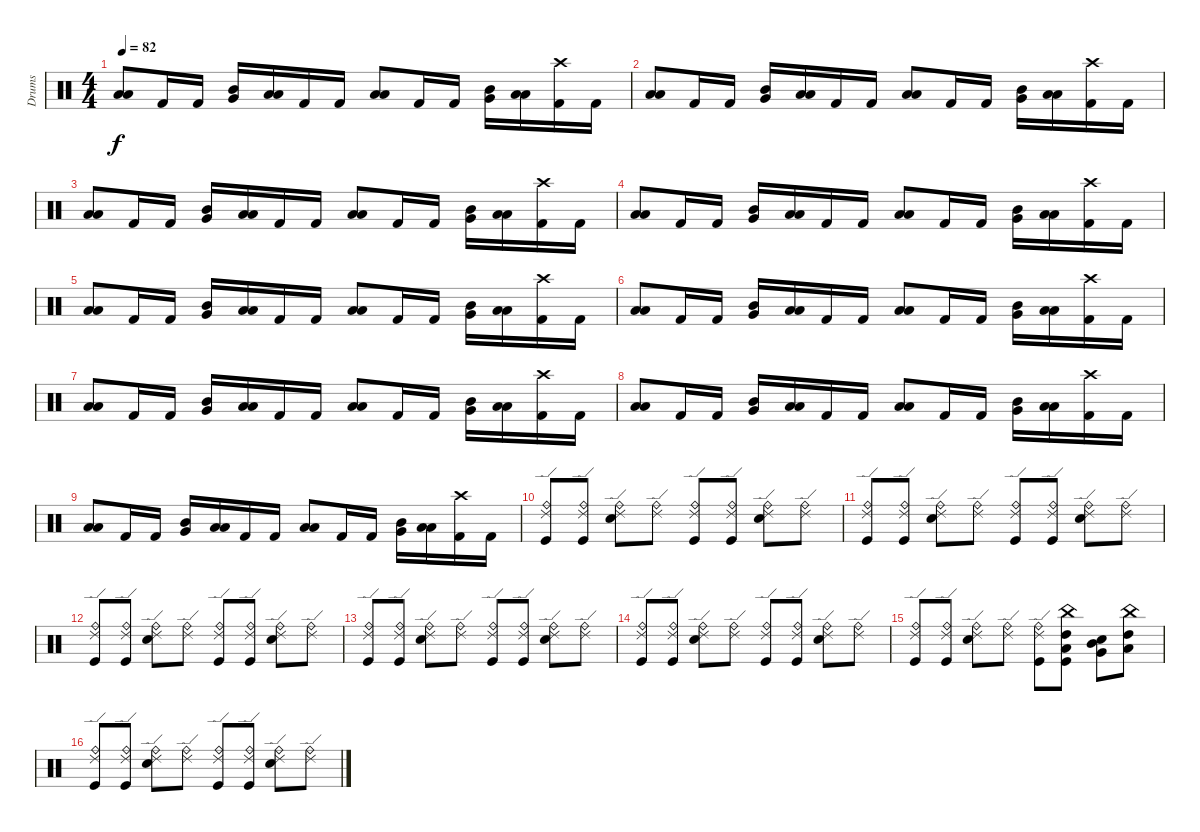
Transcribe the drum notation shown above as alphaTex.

\track ("Drums" "Drums") {instrument percussion}
\staff {score}
\articulation defaults
\ts (4 4)
\tempo 82
\clef neutral
\ks c
("Low Floor Tom (hit)" "Low Tom (hit)").8{dy f} "Kick (hit) 2".16 "Kick (hit) 2".16 ("Mid Tom (hit)" "Very Low Tom (hit)").16 ("Low Floor Tom (hit)" "Low Tom (hit)").16 "Kick (hit) 2".16 "Kick (hit) 2".16 ("Low Tom (hit)" "Low Floor Tom (hit)").8 "Kick (hit) 2".16 "Kick (hit) 2".16 ("Mid Tom (hit)" "Very Low Tom (hit)").16 ("Low Floor Tom (hit)" "Low Tom (hit)").16 ("Kick (hit) 2" "Crash high (hit)").16 "Kick (hit) 2".16 |
("Low Floor Tom (hit)" "Low Tom (hit)").8 "Kick (hit) 2".16 "Kick (hit) 2".16 ("Mid Tom (hit)" "Very Low Tom (hit)").16 ("Low Floor Tom (hit)" "Low Tom (hit)").16 "Kick (hit) 2".16 "Kick (hit) 2".16 ("Low Tom (hit)" "Low Floor Tom (hit)").8 "Kick (hit) 2".16 "Kick (hit) 2".16 ("Mid Tom (hit)" "Very Low Tom (hit)").16 ("Low Floor Tom (hit)" "Low Tom (hit)").16 ("Kick (hit) 2" "Crash high (hit)").16 "Kick (hit) 2".16 |
("Low Floor Tom (hit)" "Low Tom (hit)").8 "Kick (hit) 2".16 "Kick (hit) 2".16 ("Mid Tom (hit)" "Very Low Tom (hit)").16 ("Low Floor Tom (hit)" "Low Tom (hit)").16 "Kick (hit) 2".16 "Kick (hit) 2".16 ("Low Tom (hit)" "Low Floor Tom (hit)").8 "Kick (hit) 2".16 "Kick (hit) 2".16 ("Mid Tom (hit)" "Very Low Tom (hit)").16 ("Low Floor Tom (hit)" "Low Tom (hit)").16 ("Kick (hit) 2" "Crash high (hit)").16 "Kick (hit) 2".16 |
("Low Floor Tom (hit)" "Low Tom (hit)").8 "Kick (hit) 2".16 "Kick (hit) 2".16 ("Mid Tom (hit)" "Very Low Tom (hit)").16 ("Low Floor Tom (hit)" "Low Tom (hit)").16 "Kick (hit) 2".16 "Kick (hit) 2".16 ("Low Tom (hit)" "Low Floor Tom (hit)").8 "Kick (hit) 2".16 "Kick (hit) 2".16 ("Mid Tom (hit)" "Very Low Tom (hit)").16 ("Low Floor Tom (hit)" "Low Tom (hit)").16 ("Kick (hit) 2" "Crash high (hit)").16 "Kick (hit) 2".16 |
("Low Floor Tom (hit)" "Low Tom (hit)").8 "Kick (hit) 2".16 "Kick (hit) 2".16 ("Mid Tom (hit)" "Very Low Tom (hit)").16 ("Low Floor Tom (hit)" "Low Tom (hit)").16 "Kick (hit) 2".16 "Kick (hit) 2".16 ("Low Tom (hit)" "Low Floor Tom (hit)").8 "Kick (hit) 2".16 "Kick (hit) 2".16 ("Mid Tom (hit)" "Very Low Tom (hit)").16 ("Low Floor Tom (hit)" "Low Tom (hit)").16 ("Kick (hit) 2" "Crash high (hit)").16 "Kick (hit) 2".16 |
("Low Floor Tom (hit)" "Low Tom (hit)").8 "Kick (hit) 2".16 "Kick (hit) 2".16 ("Mid Tom (hit)" "Very Low Tom (hit)").16 ("Low Floor Tom (hit)" "Low Tom (hit)").16 "Kick (hit) 2".16 "Kick (hit) 2".16 ("Low Tom (hit)" "Low Floor Tom (hit)").8 "Kick (hit) 2".16 "Kick (hit) 2".16 ("Mid Tom (hit)" "Very Low Tom (hit)").16 ("Low Floor Tom (hit)" "Low Tom (hit)").16 ("Kick (hit) 2" "Crash high (hit)").16 "Kick (hit) 2".16 |
("Low Floor Tom (hit)" "Low Tom (hit)").8 "Kick (hit) 2".16 "Kick (hit) 2".16 ("Mid Tom (hit)" "Very Low Tom (hit)").16 ("Low Floor Tom (hit)" "Low Tom (hit)").16 "Kick (hit) 2".16 "Kick (hit) 2".16 ("Low Tom (hit)" "Low Floor Tom (hit)").8 "Kick (hit) 2".16 "Kick (hit) 2".16 ("Mid Tom (hit)" "Very Low Tom (hit)").16 ("Low Floor Tom (hit)" "Low Tom (hit)").16 ("Kick (hit) 2" "Crash high (hit)").16 "Kick (hit) 2".16 |
("Low Floor Tom (hit)" "Low Tom (hit)").8 "Kick (hit) 2".16 "Kick (hit) 2".16 ("Mid Tom (hit)" "Very Low Tom (hit)").16 ("Low Floor Tom (hit)" "Low Tom (hit)").16 "Kick (hit) 2".16 "Kick (hit) 2".16 ("Low Tom (hit)" "Low Floor Tom (hit)").8 "Kick (hit) 2".16 "Kick (hit) 2".16 ("Mid Tom (hit)" "Very Low Tom (hit)").16 ("Low Floor Tom (hit)" "Low Tom (hit)").16 ("Kick (hit) 2" "Crash high (hit)").16 "Kick (hit) 2".16 |
("Low Floor Tom (hit)" "Low Tom (hit)").8 "Kick (hit) 2".16 "Kick (hit) 2".16 ("Mid Tom (hit)" "Very Low Tom (hit)").16 ("Low Floor Tom (hit)" "Low Tom (hit)").16 "Kick (hit) 2".16 "Kick (hit) 2".16 ("Low Tom (hit)" "Low Floor Tom (hit)").8 "Kick (hit) 2".16 "Kick (hit) 2".16 ("Mid Tom (hit)" "Very Low Tom (hit)").16 ("Low Floor Tom (hit)" "Low Tom (hit)").16 ("Kick (hit) 2" "Crash high (hit)").16 "Kick (hit) 2".16 |
("Ride (edge) 2" "Ride (bell)" "Kick (hit)").8 ("Kick (hit)" "Ride (bell)" "Ride (edge) 2").8 ("Snare (hit) 2" "Ride (bell)" "Ride (edge) 2").8 ("Ride (bell)" "Ride (edge) 2").8 ("Kick (hit)" "Ride (bell)" "Ride (edge) 2").8 ("Kick (hit)" "Ride (bell)" "Ride (edge) 2").8 ("Snare (hit) 2" "Ride (bell)" "Ride (edge) 2").8 ("Ride (bell)" "Ride (edge) 2").8 |
("Ride (edge) 2" "Ride (bell)" "Kick (hit)").8 ("Kick (hit)" "Ride (bell)" "Ride (edge) 2").8 ("Snare (hit) 2" "Ride (bell)" "Ride (edge) 2").8 ("Ride (bell)" "Ride (edge) 2").8 ("Kick (hit)" "Ride (bell)" "Ride (edge) 2").8 ("Kick (hit)" "Ride (bell)" "Ride (edge) 2").8 ("Snare (hit) 2" "Ride (bell)" "Ride (edge) 2").8 ("Ride (bell)" "Ride (edge) 2").8 |
("Ride (edge) 2" "Ride (bell)" "Kick (hit)").8 ("Kick (hit)" "Ride (bell)" "Ride (edge) 2").8 ("Snare (hit) 2" "Ride (bell)" "Ride (edge) 2").8 ("Ride (bell)" "Ride (edge) 2").8 ("Kick (hit)" "Ride (bell)" "Ride (edge) 2").8 ("Kick (hit)" "Ride (bell)" "Ride (edge) 2").8 ("Snare (hit) 2" "Ride (bell)" "Ride (edge) 2").8 ("Ride (bell)" "Ride (edge) 2").8 |
("Ride (edge) 2" "Ride (bell)" "Kick (hit)").8 ("Kick (hit)" "Ride (bell)" "Ride (edge) 2").8 ("Snare (hit) 2" "Ride (bell)" "Ride (edge) 2").8 ("Ride (bell)" "Ride (edge) 2").8 ("Kick (hit)" "Ride (bell)" "Ride (edge) 2").8 ("Kick (hit)" "Ride (bell)" "Ride (edge) 2").8 ("Snare (hit) 2" "Ride (bell)" "Ride (edge) 2").8 ("Ride (bell)" "Ride (edge) 2").8 |
("Ride (edge) 2" "Ride (bell)" "Kick (hit)").8 ("Kick (hit)" "Ride (bell)" "Ride (edge) 2").8 ("Snare (hit) 2" "Ride (bell)" "Ride (edge) 2").8 ("Ride (bell)" "Ride (edge) 2").8 ("Kick (hit)" "Ride (bell)" "Ride (edge) 2").8 ("Kick (hit)" "Ride (bell)" "Ride (edge) 2").8 ("Snare (hit) 2" "Ride (bell)" "Ride (edge) 2").8 ("Ride (bell)" "Ride (edge) 2").8 |
("Ride (edge) 2" "Ride (bell)" "Kick (hit)").8 ("Kick (hit)" "Ride (bell)" "Ride (edge) 2").8 ("Snare (hit) 2" "Ride (bell)" "Ride (edge) 2").8 ("Ride (bell)" "Ride (edge) 2").8 ("Kick (hit)" "Ride (bell)" "Ride (edge) 2").8 ("Kick (hit)" "High Tom (hit)" "Low Tom (hit)" "China (hit)").8 ("Snare (hit) 2" "Very Low Tom (hit)" "Mid Tom (hit)").8 ("Low Tom (hit)" "High Tom (hit)" "China (hit)").8 |
("Ride (edge) 2" "Ride (bell)" "Kick (hit)").8 ("Kick (hit)" "Ride (bell)" "Ride (edge) 2").8 ("Snare (hit) 2" "Ride (bell)" "Ride (edge) 2").8 ("Ride (bell)" "Ride (edge) 2").8 ("Kick (hit)" "Ride (bell)" "Ride (edge) 2").8 ("Kick (hit)" "Ride (bell)" "Ride (edge) 2").8 ("Snare (hit) 2" "Ride (bell)" "Ride (edge) 2").8 ("Ride (bell)" "Ride (edge) 2").8
